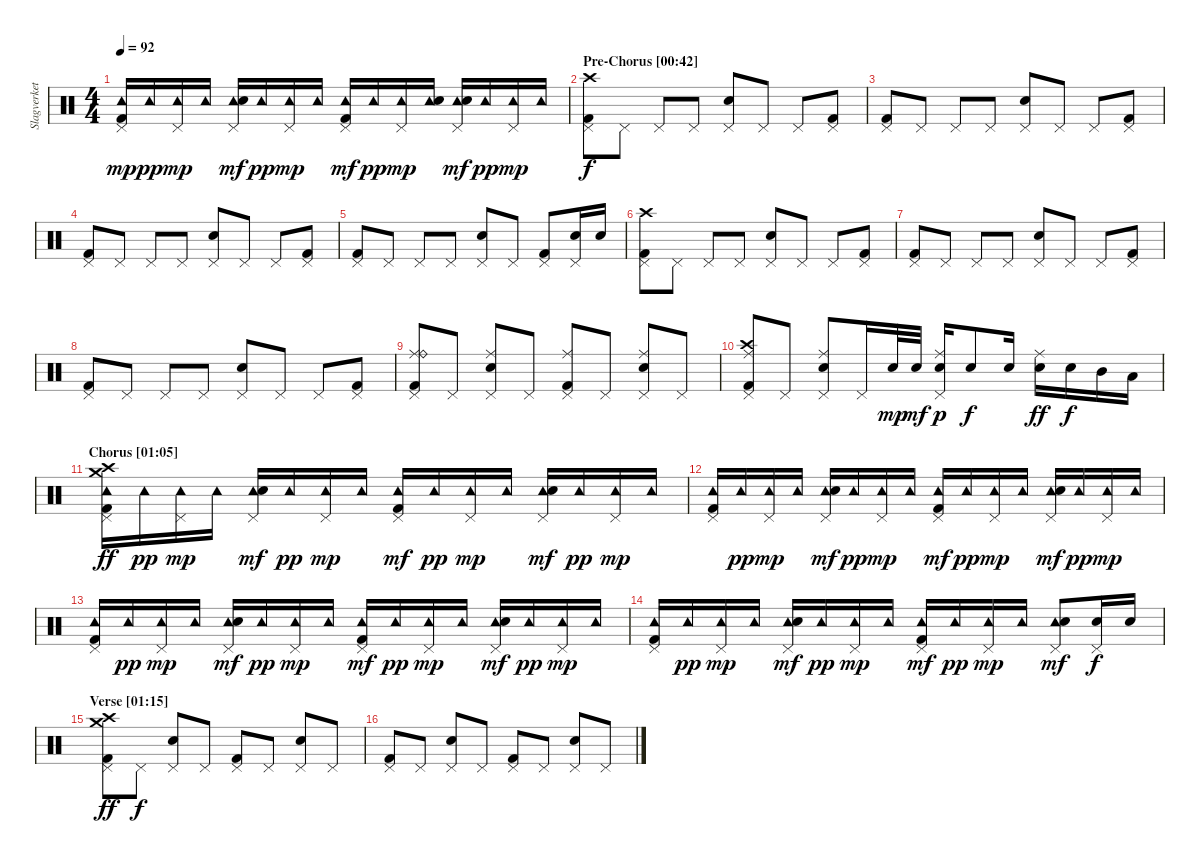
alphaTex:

\track ("Slagverket!" "Slagverket") {instrument percussion}
\staff {score}
\articulation defaults
\ts (4 4)
\tempo 92
\clef neutral
\ks c
("Pedal Hi-Hat (hit)" "Tambourine (hit)" "Kick (hit) 2").16{dy mp} "Tambourine (hit)".16{dy pp} ("Pedal Hi-Hat (hit)" "Tambourine (hit)").16{dy mp} "Tambourine (hit)".16 ("Pedal Hi-Hat (hit)" "Tambourine (hit)" "Electric Snare (hit)").16{dy mf} "Tambourine (hit)".16{dy pp} ("Pedal Hi-Hat (hit)" "Tambourine (hit)").16{dy mp} "Tambourine (hit)".16 ("Pedal Hi-Hat (hit)" "Tambourine (hit)" "Kick (hit) 2").16{dy mf} "Tambourine (hit)".16{dy pp} ("Pedal Hi-Hat (hit)" "Tambourine (hit)").16{dy mp} ("Tambourine (hit)" "Electric Snare (hit)").16 ("Pedal Hi-Hat (hit)" "Tambourine (hit)" "Electric Snare (hit)").16{dy mf} "Tambourine (hit)".16{dy pp} ("Pedal Hi-Hat (hit)" "Tambourine (hit)").16{dy mp} "Tambourine (hit)".16 |
\section ("" "Pre-Chorus [00:42] ")
("Pedal Hi-Hat (hit)" "Crash high (hit)" "Kick (hit) 2").8{dy f} "Pedal Hi-Hat (hit)".8 "Pedal Hi-Hat (hit)".8 "Pedal Hi-Hat (hit)".8 ("Pedal Hi-Hat (hit)" "Electric Snare (hit)").8 "Pedal Hi-Hat (hit)".8 "Pedal Hi-Hat (hit)".8 ("Pedal Hi-Hat (hit)" "Kick (hit) 2").8 |
("Pedal Hi-Hat (hit)" "Kick (hit) 2").8 "Pedal Hi-Hat (hit)".8 "Pedal Hi-Hat (hit)".8 "Pedal Hi-Hat (hit)".8 ("Pedal Hi-Hat (hit)" "Electric Snare (hit)").8 "Pedal Hi-Hat (hit)".8 "Pedal Hi-Hat (hit)".8 ("Pedal Hi-Hat (hit)" "Kick (hit) 2").8 |
("Pedal Hi-Hat (hit)" "Kick (hit) 2").8 "Pedal Hi-Hat (hit)".8 "Pedal Hi-Hat (hit)".8 "Pedal Hi-Hat (hit)".8 ("Pedal Hi-Hat (hit)" "Electric Snare (hit)").8 "Pedal Hi-Hat (hit)".8 "Pedal Hi-Hat (hit)".8 ("Pedal Hi-Hat (hit)" "Kick (hit) 2").8 |
("Pedal Hi-Hat (hit)" "Kick (hit) 2").8 "Pedal Hi-Hat (hit)".8 "Pedal Hi-Hat (hit)".8 "Pedal Hi-Hat (hit)".8 ("Pedal Hi-Hat (hit)" "Electric Snare (hit)").8 "Pedal Hi-Hat (hit)".8 ("Pedal Hi-Hat (hit)" "Kick (hit) 2").8 ("Pedal Hi-Hat (hit)" "Electric Snare (hit)").16 "Electric Snare (hit)".16 |
("Pedal Hi-Hat (hit)" "Crash high (hit)" "Kick (hit) 2").8 "Pedal Hi-Hat (hit)".8 "Pedal Hi-Hat (hit)".8 "Pedal Hi-Hat (hit)".8 ("Pedal Hi-Hat (hit)" "Electric Snare (hit)").8 "Pedal Hi-Hat (hit)".8 "Pedal Hi-Hat (hit)".8 ("Pedal Hi-Hat (hit)" "Kick (hit) 2").8 |
("Pedal Hi-Hat (hit)" "Kick (hit) 2").8 "Pedal Hi-Hat (hit)".8 "Pedal Hi-Hat (hit)".8 "Pedal Hi-Hat (hit)".8 ("Pedal Hi-Hat (hit)" "Electric Snare (hit)").8 "Pedal Hi-Hat (hit)".8 "Pedal Hi-Hat (hit)".8 ("Pedal Hi-Hat (hit)" "Kick (hit) 2").8 |
("Pedal Hi-Hat (hit)" "Kick (hit) 2").8 "Pedal Hi-Hat (hit)".8 "Pedal Hi-Hat (hit)".8 "Pedal Hi-Hat (hit)".8 ("Pedal Hi-Hat (hit)" "Electric Snare (hit)").8 "Pedal Hi-Hat (hit)".8 "Pedal Hi-Hat (hit)".8 ("Pedal Hi-Hat (hit)" "Kick (hit) 2").8 |
("Pedal Hi-Hat (hit)" "Ride (middle)" "Ride (bell)" "Kick (hit) 2").8 "Pedal Hi-Hat (hit)".8 ("Pedal Hi-Hat (hit)" "Ride (middle)" "Electric Snare (hit)").8 "Pedal Hi-Hat (hit)".8 ("Pedal Hi-Hat (hit)" "Ride (middle)" "Kick (hit) 2").8 "Pedal Hi-Hat (hit)".8 ("Pedal Hi-Hat (hit)" "Ride (middle)" "Electric Snare (hit)").8 "Pedal Hi-Hat (hit)".8 |
("Pedal Hi-Hat (hit)" "Ride (middle)" "Crash high (hit)" "Kick (hit) 2").8 "Pedal Hi-Hat (hit)".8 ("Pedal Hi-Hat (hit)" "Ride (middle)" "Electric Snare (hit)").8 "Pedal Hi-Hat (hit)".16 "Electric Snare (hit)".32{dy mp} "Electric Snare (hit)".32{dy mf} ("Pedal Hi-Hat (hit)" "Ride (middle)" "Electric Snare (hit)").16{dy p} "Electric Snare (hit)".8{dy f} "Electric Snare (hit)".16 ("Ride (middle)" "Electric Snare (hit)").16{dy ff} "Electric Snare (hit)".16{dy f} "Mid Tom (hit)".16 "Low Tom (hit)".16 |
\section ("" "Chorus [01:05]")
("Pedal Hi-Hat (hit)" "Tambourine (hit)" "Crash medium (hit)" "Crash high (hit)" "Kick (hit) 2").16{dy ff} "Tambourine (hit)".16{dy pp} ("Pedal Hi-Hat (hit)" "Tambourine (hit)").16{dy mp} "Tambourine (hit)".16 ("Pedal Hi-Hat (hit)" "Tambourine (hit)" "Electric Snare (hit)").16{dy mf} "Tambourine (hit)".16{dy pp} ("Pedal Hi-Hat (hit)" "Tambourine (hit)").16{dy mp} "Tambourine (hit)".16 ("Pedal Hi-Hat (hit)" "Tambourine (hit)" "Kick (hit) 2").16{dy mf} "Tambourine (hit)".16{dy pp} ("Pedal Hi-Hat (hit)" "Tambourine (hit)").16{dy mp} "Tambourine (hit)".16 ("Pedal Hi-Hat (hit)" "Tambourine (hit)" "Electric Snare (hit)").16{dy mf} "Tambourine (hit)".16{dy pp} ("Pedal Hi-Hat (hit)" "Tambourine (hit)").16{dy mp} "Tambourine (hit)".16 |
("Pedal Hi-Hat (hit)" "Tambourine (hit)" "Kick (hit) 2").16 "Tambourine (hit)".16{dy pp} ("Pedal Hi-Hat (hit)" "Tambourine (hit)").16{dy mp} "Tambourine (hit)".16 ("Pedal Hi-Hat (hit)" "Tambourine (hit)" "Electric Snare (hit)").16{dy mf} "Tambourine (hit)".16{dy pp} ("Pedal Hi-Hat (hit)" "Tambourine (hit)").16{dy mp} "Tambourine (hit)".16 ("Pedal Hi-Hat (hit)" "Tambourine (hit)" "Kick (hit) 2").16{dy mf} "Tambourine (hit)".16{dy pp} ("Pedal Hi-Hat (hit)" "Tambourine (hit)").16{dy mp} "Tambourine (hit)".16 ("Pedal Hi-Hat (hit)" "Tambourine (hit)" "Electric Snare (hit)").16{dy mf} "Tambourine (hit)".16{dy pp} ("Pedal Hi-Hat (hit)" "Tambourine (hit)").16{dy mp} "Tambourine (hit)".16 |
("Pedal Hi-Hat (hit)" "Tambourine (hit)" "Kick (hit) 2").16 "Tambourine (hit)".16{dy pp} ("Pedal Hi-Hat (hit)" "Tambourine (hit)").16{dy mp} "Tambourine (hit)".16 ("Pedal Hi-Hat (hit)" "Tambourine (hit)" "Electric Snare (hit)").16{dy mf} "Tambourine (hit)".16{dy pp} ("Pedal Hi-Hat (hit)" "Tambourine (hit)").16{dy mp} "Tambourine (hit)".16 ("Pedal Hi-Hat (hit)" "Tambourine (hit)" "Kick (hit) 2").16{dy mf} "Tambourine (hit)".16{dy pp} ("Pedal Hi-Hat (hit)" "Tambourine (hit)").16{dy mp} "Tambourine (hit)".16 ("Pedal Hi-Hat (hit)" "Tambourine (hit)" "Electric Snare (hit)").16{dy mf} "Tambourine (hit)".16{dy pp} ("Pedal Hi-Hat (hit)" "Tambourine (hit)").16{dy mp} "Tambourine (hit)".16 |
("Pedal Hi-Hat (hit)" "Tambourine (hit)" "Kick (hit) 2").16 "Tambourine (hit)".16{dy pp} ("Pedal Hi-Hat (hit)" "Tambourine (hit)").16{dy mp} "Tambourine (hit)".16 ("Pedal Hi-Hat (hit)" "Tambourine (hit)" "Electric Snare (hit)").16{dy mf} "Tambourine (hit)".16{dy pp} ("Pedal Hi-Hat (hit)" "Tambourine (hit)").16{dy mp} "Tambourine (hit)".16 ("Pedal Hi-Hat (hit)" "Tambourine (hit)" "Kick (hit) 2").16{dy mf} "Tambourine (hit)".16{dy pp} ("Pedal Hi-Hat (hit)" "Tambourine (hit)").16{dy mp} "Tambourine (hit)".16 ("Pedal Hi-Hat (hit)" "Tambourine (hit)" "Electric Snare (hit)").8{dy mf} ("Pedal Hi-Hat (hit)" "Electric Snare (hit)").16{dy f} "Electric Snare (hit)".16 |
\section ("" "Verse [01:15]")
("Pedal Hi-Hat (hit)" "Crash high (hit)" "Crash medium (hit)" "Kick (hit) 2").8{dy ff} "Pedal Hi-Hat (hit)".8{dy f} ("Pedal Hi-Hat (hit)" "Electric Snare (hit)").8 "Pedal Hi-Hat (hit)".8 ("Pedal Hi-Hat (hit)" "Kick (hit) 2").8 "Pedal Hi-Hat (hit)".8 ("Pedal Hi-Hat (hit)" "Electric Snare (hit)").8 "Pedal Hi-Hat (hit)".8 |
("Pedal Hi-Hat (hit)" "Kick (hit) 2").8 "Pedal Hi-Hat (hit)".8 ("Pedal Hi-Hat (hit)" "Electric Snare (hit)").8 "Pedal Hi-Hat (hit)".8 ("Pedal Hi-Hat (hit)" "Kick (hit) 2").8 "Pedal Hi-Hat (hit)".8 ("Pedal Hi-Hat (hit)" "Electric Snare (hit)").8 "Pedal Hi-Hat (hit)".8
